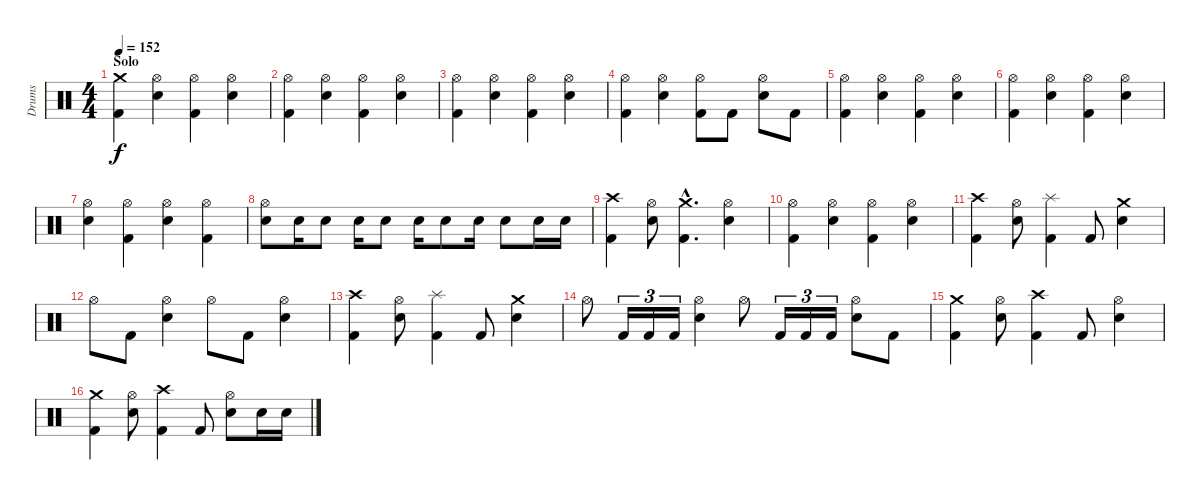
\track ("Drums" "Drums") {instrument percussion}
\staff {score}
\articulation defaults
\ts (4 4)
\section ("" "Solo")
\tempo 152
\clef neutral
\ks c
("Crash medium (hit)" "Kick (hit) 2").4{dy f} ("Hi-Hat (open)" "Snare (hit) 2").4 ("Hi-Hat (open)" "Kick (hit) 2").4 ("Hi-Hat (open)" "Snare (hit) 2").4 |
("Hi-Hat (open)" "Kick (hit) 2").4 ("Hi-Hat (open)" "Snare (hit) 2").4 ("Hi-Hat (open)" "Kick (hit) 2").4 ("Hi-Hat (open)" "Snare (hit) 2").4 |
("Hi-Hat (open)" "Kick (hit) 2").4 ("Hi-Hat (open)" "Snare (hit) 2").4 ("Hi-Hat (open)" "Kick (hit) 2").4 ("Hi-Hat (open)" "Snare (hit) 2").4 |
("Hi-Hat (open)" "Kick (hit) 2").4 ("Hi-Hat (open)" "Snare (hit) 2").4 ("Hi-Hat (open)" "Kick (hit) 2").8 "Kick (hit) 2".8 ("Hi-Hat (open)" "Snare (hit) 2").8 "Kick (hit) 2".8 |
("Hi-Hat (open)" "Kick (hit) 2").4 ("Hi-Hat (open)" "Snare (hit) 2").4 ("Hi-Hat (open)" "Kick (hit) 2").4 ("Hi-Hat (open)" "Snare (hit) 2").4 |
("Hi-Hat (open)" "Kick (hit) 2").4 ("Hi-Hat (open)" "Snare (hit) 2").4 ("Hi-Hat (open)" "Kick (hit) 2").4 ("Hi-Hat (open)" "Snare (hit) 2").4 |
("Hi-Hat (open)" "Snare (hit) 2").4 ("Hi-Hat (open)" "Kick (hit) 2").4 ("Hi-Hat (open)" "Snare (hit) 2").4 ("Hi-Hat (open)" "Kick (hit) 2").4 |
("Hi-Hat (open)" "Snare (hit) 2").8 "Snare (hit) 2".16 "Snare (hit) 2".8 "Snare (hit) 2".16 "Snare (hit) 2".8 "Snare (hit) 2".16 "Snare (hit) 2".8 "Snare (hit) 2".16 "Snare (hit) 2".8 "Snare (hit) 2".16 "Snare (hit) 2".16 |
("Crash high (hit)" "Kick (hit) 2").4 ("Hi-Hat (open)" "Snare (hit) 2").8 ("Crash medium (hit)"{hac} "Kick (hit) 2"{hac}).4{d} ("Hi-Hat (open)" "Snare (hit) 2").4 |
("Hi-Hat (open)" "Kick (hit) 2").4 ("Hi-Hat (open)" "Snare (hit) 2").4 ("Hi-Hat (open)" "Kick (hit) 2").4 ("Hi-Hat (open)" "Snare (hit) 2").4 |
("Crash high (hit)" "Kick (hit) 2").4 ("Hi-Hat (open)" "Snare (hit) 2").8 ("Splash (hit)" "Kick (hit) 2").4 "Kick (hit) 2".8 ("Crash medium (hit)" "Snare (hit) 2").4 |
"Hi-Hat (open)".8 "Kick (hit) 2".8 ("Hi-Hat (open)" "Snare (hit) 2").4 "Hi-Hat (open)".8 "Kick (hit) 2".8 ("Hi-Hat (open)" "Snare (hit) 2").4 |
("Crash high (hit)" "Kick (hit) 2").4 ("Hi-Hat (open)" "Snare (hit) 2").8 ("Splash (hit)" "Kick (hit) 2").4 "Kick (hit) 2".8 ("Crash medium (hit)" "Snare (hit) 2").4 |
"Hi-Hat (open)".8 "Kick (hit) 2".16{tu (3 2)} "Kick (hit) 2".16{tu (3 2)} "Kick (hit) 2".16{tu (3 2)} ("Hi-Hat (open)" "Snare (hit) 2").4 "Hi-Hat (open)".8 "Kick (hit) 2".16{tu (3 2)} "Kick (hit) 2".16{tu (3 2)} "Kick (hit) 2".16{tu (3 2)} ("Hi-Hat (open)" "Snare (hit) 2").8 "Kick (hit) 2".8 |
("Crash medium (hit)" "Kick (hit) 2").4 ("Hi-Hat (open)" "Snare (hit) 2").8 ("Crash high (hit)" "Kick (hit) 2").4 "Kick (hit) 2".8 ("Hi-Hat (open)" "Snare (hit) 2").4 |
("Crash medium (hit)" "Kick (hit) 2").4 ("Hi-Hat (open)" "Snare (hit) 2").8 ("Crash high (hit)" "Kick (hit) 2").4 "Kick (hit) 2".8 ("Hi-Hat (open)" "Snare (hit) 2").8 "Snare (hit) 2".16 "Snare (hit) 2".16
